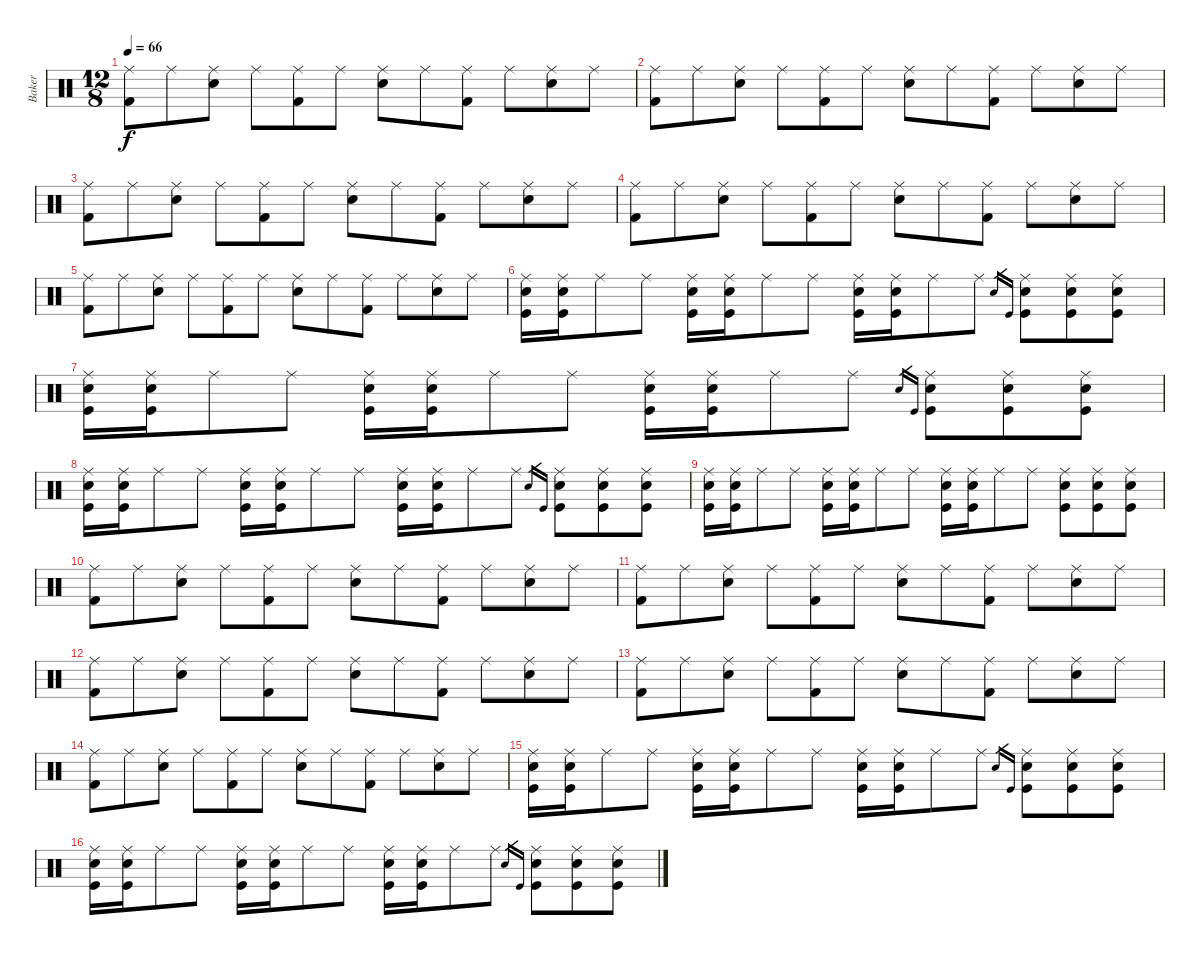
\track ("Baker" "Baker") {instrument percussion}
\staff {score}
\articulation defaults
\ts (12 8)
\tempo 66
\clef neutral
\ks c
("Kick (hit) 2" "Ride (middle)").8{dy f} "Ride (middle)".8 ("Electric Snare (hit)" "Ride (middle)").8 "Ride (middle)".8 ("Kick (hit) 2" "Ride (middle)").8 "Ride (middle)".8 ("Electric Snare (hit)" "Ride (middle)").8 "Ride (middle)".8 ("Kick (hit) 2" "Ride (middle)").8 "Ride (middle)".8 ("Electric Snare (hit)" "Ride (middle)").8 "Ride (middle)".8 |
("Kick (hit) 2" "Ride (middle)").8 "Ride (middle)".8 ("Electric Snare (hit)" "Ride (middle)").8 "Ride (middle)".8 ("Kick (hit) 2" "Ride (middle)").8 "Ride (middle)".8 ("Electric Snare (hit)" "Ride (middle)").8 "Ride (middle)".8 ("Kick (hit) 2" "Ride (middle)").8 "Ride (middle)".8 ("Electric Snare (hit)" "Ride (middle)").8 "Ride (middle)".8 |
("Kick (hit) 2" "Ride (middle)").8 "Ride (middle)".8 ("Electric Snare (hit)" "Ride (middle)").8 "Ride (middle)".8 ("Kick (hit) 2" "Ride (middle)").8 "Ride (middle)".8 ("Electric Snare (hit)" "Ride (middle)").8 "Ride (middle)".8 ("Kick (hit) 2" "Ride (middle)").8 "Ride (middle)".8 ("Electric Snare (hit)" "Ride (middle)").8 "Ride (middle)".8 |
("Kick (hit) 2" "Ride (middle)").8 "Ride (middle)".8 ("Electric Snare (hit)" "Ride (middle)").8 "Ride (middle)".8 ("Kick (hit) 2" "Ride (middle)").8 "Ride (middle)".8 ("Electric Snare (hit)" "Ride (middle)").8 "Ride (middle)".8 ("Kick (hit) 2" "Ride (middle)").8 "Ride (middle)".8 ("Electric Snare (hit)" "Ride (middle)").8 "Ride (middle)".8 |
("Kick (hit) 2" "Ride (middle)").8 "Ride (middle)".8 ("Electric Snare (hit)" "Ride (middle)").8 "Ride (middle)".8 ("Kick (hit) 2" "Ride (middle)").8 "Ride (middle)".8 ("Electric Snare (hit)" "Ride (middle)").8 "Ride (middle)".8 ("Kick (hit) 2" "Ride (middle)").8 "Ride (middle)".8 ("Electric Snare (hit)" "Ride (middle)").8 "Ride (middle)".8 |
("Electric Snare (hit)" "Kick (hit)" "Ride (middle)").16 ("Electric Snare (hit)" "Kick (hit)" "Ride (middle)").16 "Ride (middle)".8 "Ride (middle)".8 ("Electric Snare (hit)" "Kick (hit)" "Ride (middle)").16 ("Electric Snare (hit)" "Kick (hit)" "Ride (middle)").16 "Ride (middle)".8 "Ride (middle)".8 ("Electric Snare (hit)" "Kick (hit)" "Ride (middle)").16 ("Electric Snare (hit)" "Kick (hit)" "Ride (middle)").16 "Ride (middle)".8 "Ride (middle)".8 "Electric Snare (hit)".16{gr} "Kick (hit)".16{gr} ("Electric Snare (hit)" "Kick (hit)" "Ride (middle)").8 ("Electric Snare (hit)" "Kick (hit)" "Ride (middle)").8 ("Electric Snare (hit)" "Kick (hit)" "Ride (middle)").8 |
("Electric Snare (hit)" "Kick (hit)" "Ride (middle)").16 ("Electric Snare (hit)" "Kick (hit)" "Ride (middle)").16 "Ride (middle)".8 "Ride (middle)".8 ("Electric Snare (hit)" "Kick (hit)" "Ride (middle)").16 ("Electric Snare (hit)" "Kick (hit)" "Ride (middle)").16 "Ride (middle)".8 "Ride (middle)".8 ("Electric Snare (hit)" "Kick (hit)" "Ride (middle)").16 ("Electric Snare (hit)" "Kick (hit)" "Ride (middle)").16 "Ride (middle)".8 "Ride (middle)".8 "Electric Snare (hit)".16{gr} "Kick (hit)".16{gr} ("Electric Snare (hit)" "Kick (hit)" "Ride (middle)").8 ("Electric Snare (hit)" "Kick (hit)" "Ride (middle)").8 ("Electric Snare (hit)" "Kick (hit)" "Ride (middle)").8 |
("Electric Snare (hit)" "Kick (hit)" "Ride (middle)").16 ("Electric Snare (hit)" "Kick (hit)" "Ride (middle)").16 "Ride (middle)".8 "Ride (middle)".8 ("Electric Snare (hit)" "Kick (hit)" "Ride (middle)").16 ("Electric Snare (hit)" "Kick (hit)" "Ride (middle)").16 "Ride (middle)".8 "Ride (middle)".8 ("Electric Snare (hit)" "Kick (hit)" "Ride (middle)").16 ("Electric Snare (hit)" "Kick (hit)" "Ride (middle)").16 "Ride (middle)".8 "Ride (middle)".8 "Electric Snare (hit)".16{gr} "Kick (hit)".16{gr} ("Electric Snare (hit)" "Kick (hit)" "Ride (middle)").8 ("Electric Snare (hit)" "Kick (hit)" "Ride (middle)").8 ("Electric Snare (hit)" "Kick (hit)" "Ride (middle)").8 |
("Electric Snare (hit)" "Kick (hit)" "Ride (middle)").16 ("Electric Snare (hit)" "Kick (hit)" "Ride (middle)").16 "Ride (middle)".8 "Ride (middle)".8 ("Electric Snare (hit)" "Kick (hit)" "Ride (middle)").16 ("Electric Snare (hit)" "Kick (hit)" "Ride (middle)").16 "Ride (middle)".8 "Ride (middle)".8 ("Electric Snare (hit)" "Kick (hit)" "Ride (middle)").16 ("Electric Snare (hit)" "Kick (hit)" "Ride (middle)").16 "Ride (middle)".8 "Ride (middle)".8 ("Electric Snare (hit)" "Kick (hit)" "Ride (middle)").8 ("Electric Snare (hit)" "Kick (hit)" "Ride (middle)").8 ("Electric Snare (hit)" "Kick (hit)" "Ride (middle)").8 |
("Kick (hit) 2" "Ride (middle)").8 "Ride (middle)".8 ("Electric Snare (hit)" "Ride (middle)").8 "Ride (middle)".8 ("Kick (hit) 2" "Ride (middle)").8 "Ride (middle)".8 ("Electric Snare (hit)" "Ride (middle)").8 "Ride (middle)".8 ("Kick (hit) 2" "Ride (middle)").8 "Ride (middle)".8 ("Electric Snare (hit)" "Ride (middle)").8 "Ride (middle)".8 |
("Kick (hit) 2" "Ride (middle)").8 "Ride (middle)".8 ("Electric Snare (hit)" "Ride (middle)").8 "Ride (middle)".8 ("Kick (hit) 2" "Ride (middle)").8 "Ride (middle)".8 ("Electric Snare (hit)" "Ride (middle)").8 "Ride (middle)".8 ("Kick (hit) 2" "Ride (middle)").8 "Ride (middle)".8 ("Electric Snare (hit)" "Ride (middle)").8 "Ride (middle)".8 |
("Kick (hit) 2" "Ride (middle)").8 "Ride (middle)".8 ("Electric Snare (hit)" "Ride (middle)").8 "Ride (middle)".8 ("Kick (hit) 2" "Ride (middle)").8 "Ride (middle)".8 ("Electric Snare (hit)" "Ride (middle)").8 "Ride (middle)".8 ("Kick (hit) 2" "Ride (middle)").8 "Ride (middle)".8 ("Electric Snare (hit)" "Ride (middle)").8 "Ride (middle)".8 |
("Kick (hit) 2" "Ride (middle)").8 "Ride (middle)".8 ("Electric Snare (hit)" "Ride (middle)").8 "Ride (middle)".8 ("Kick (hit) 2" "Ride (middle)").8 "Ride (middle)".8 ("Electric Snare (hit)" "Ride (middle)").8 "Ride (middle)".8 ("Kick (hit) 2" "Ride (middle)").8 "Ride (middle)".8 ("Electric Snare (hit)" "Ride (middle)").8 "Ride (middle)".8 |
("Kick (hit) 2" "Ride (middle)").8 "Ride (middle)".8 ("Electric Snare (hit)" "Ride (middle)").8 "Ride (middle)".8 ("Kick (hit) 2" "Ride (middle)").8 "Ride (middle)".8 ("Electric Snare (hit)" "Ride (middle)").8 "Ride (middle)".8 ("Kick (hit) 2" "Ride (middle)").8 "Ride (middle)".8 ("Electric Snare (hit)" "Ride (middle)").8 "Ride (middle)".8 |
("Electric Snare (hit)" "Kick (hit)" "Ride (middle)").16 ("Electric Snare (hit)" "Kick (hit)" "Ride (middle)").16 "Ride (middle)".8 "Ride (middle)".8 ("Electric Snare (hit)" "Kick (hit)" "Ride (middle)").16 ("Electric Snare (hit)" "Kick (hit)" "Ride (middle)").16 "Ride (middle)".8 "Ride (middle)".8 ("Electric Snare (hit)" "Kick (hit)" "Ride (middle)").16 ("Electric Snare (hit)" "Kick (hit)" "Ride (middle)").16 "Ride (middle)".8 "Ride (middle)".8 "Electric Snare (hit)".16{gr} "Kick (hit)".16{gr} ("Electric Snare (hit)" "Kick (hit)" "Ride (middle)").8 ("Electric Snare (hit)" "Kick (hit)" "Ride (middle)").8 ("Electric Snare (hit)" "Kick (hit)" "Ride (middle)").8 |
("Electric Snare (hit)" "Kick (hit)" "Ride (middle)").16 ("Electric Snare (hit)" "Kick (hit)" "Ride (middle)").16 "Ride (middle)".8 "Ride (middle)".8 ("Electric Snare (hit)" "Kick (hit)" "Ride (middle)").16 ("Electric Snare (hit)" "Kick (hit)" "Ride (middle)").16 "Ride (middle)".8 "Ride (middle)".8 ("Electric Snare (hit)" "Kick (hit)" "Ride (middle)").16 ("Electric Snare (hit)" "Kick (hit)" "Ride (middle)").16 "Ride (middle)".8 "Ride (middle)".8 "Electric Snare (hit)".16{gr} "Kick (hit)".16{gr} ("Electric Snare (hit)" "Kick (hit)" "Ride (middle)").8 ("Electric Snare (hit)" "Kick (hit)" "Ride (middle)").8 ("Electric Snare (hit)" "Kick (hit)" "Ride (middle)").8
